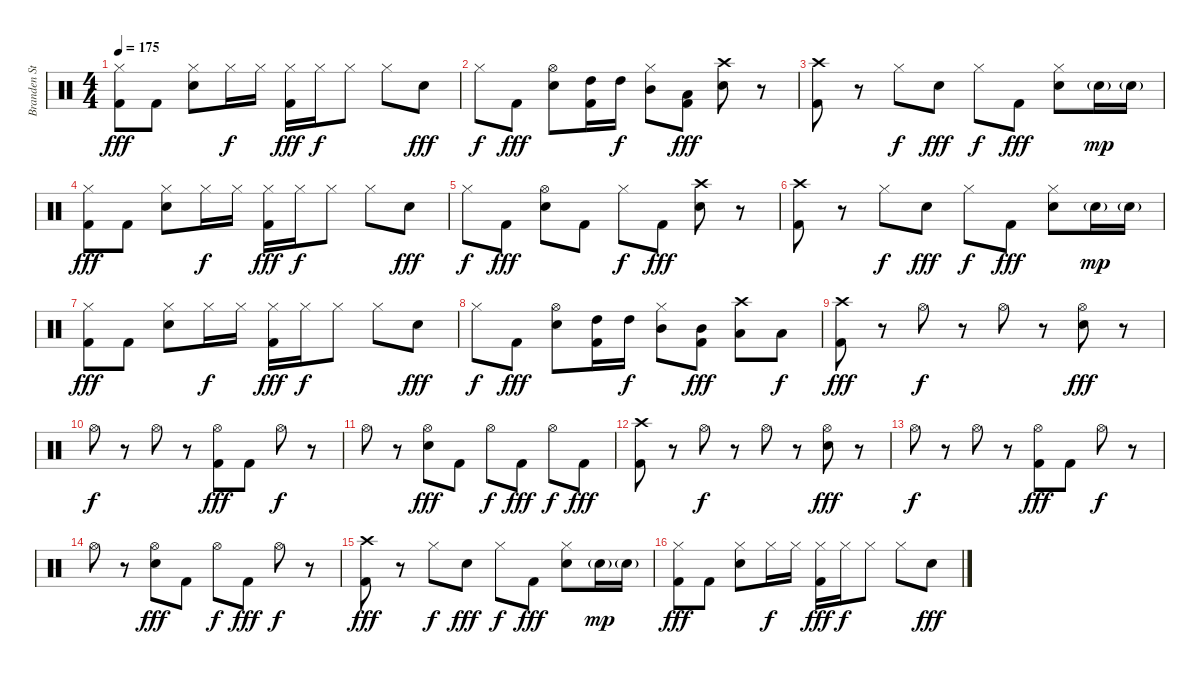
\track ("Branden Steineckert (Drums)" "Branden St") {instrument percussion}
\staff {score}
\articulation defaults
\ts (4 4)
\tempo 175
\clef neutral
\ks c
("Kick (hit) 2" "Hi-Hat (closed)").8{dy fff} "Kick (hit) 2".8 ("Electric Snare (hit)" "Hi-Hat (closed)").8 "Hi-Hat (closed)".16{dy f} "Hi-Hat (closed)".16 ("Kick (hit) 2" "Hi-Hat (closed)").16{dy fff} "Hi-Hat (closed)".16{dy f} "Hi-Hat (closed)".8 "Hi-Hat (closed)".8 "Electric Snare (hit)".8{dy fff} |
"Hi-Hat (closed)".8{dy f} "Kick (hit) 2".8{dy fff} ("Electric Snare (hit)" "Hi-Hat (open)").8 ("Kick (hit) 2" "High Tom (hit)").16 "High Tom (hit)".16{dy f} ("Mid Tom (hit)" "Hi-Hat (closed)").8 ("Kick (hit) 2" "Low Tom (hit)").8{dy fff} ("Electric Snare (hit)" "Crash high (hit)").8 r.8 |
("Kick (hit) 2" "Crash high (hit)").8 r.8 "Hi-Hat (closed)".8{dy f} "Electric Snare (hit)".8{dy fff} "Hi-Hat (closed)".8{dy f} "Kick (hit) 2".8{dy fff} ("Electric Snare (hit)" "Hi-Hat (closed)").8 "Electric Snare (hit)"{g}.16{dy mp} "Electric Snare (hit)"{g}.16 |
("Kick (hit) 2" "Hi-Hat (closed)").8{dy fff} "Kick (hit) 2".8 ("Electric Snare (hit)" "Hi-Hat (closed)").8 "Hi-Hat (closed)".16{dy f} "Hi-Hat (closed)".16 ("Kick (hit) 2" "Hi-Hat (closed)").16{dy fff} "Hi-Hat (closed)".16{dy f} "Hi-Hat (closed)".8 "Hi-Hat (closed)".8 "Electric Snare (hit)".8{dy fff} |
"Hi-Hat (closed)".8{dy f} "Kick (hit) 2".8{dy fff} ("Electric Snare (hit)" "Hi-Hat (open)").8 "Kick (hit) 2".8 "Hi-Hat (closed)".8{dy f} "Kick (hit) 2".8{dy fff} ("Electric Snare (hit)" "Crash high (hit)").8 r.8 |
("Kick (hit) 2" "Crash high (hit)").8 r.8 "Hi-Hat (closed)".8{dy f} "Electric Snare (hit)".8{dy fff} "Hi-Hat (closed)".8{dy f} "Kick (hit) 2".8{dy fff} ("Electric Snare (hit)" "Hi-Hat (closed)").8 "Electric Snare (hit)"{g}.16{dy mp} "Electric Snare (hit)"{g}.16 |
("Kick (hit) 2" "Hi-Hat (closed)").8{dy fff} "Kick (hit) 2".8 ("Electric Snare (hit)" "Hi-Hat (closed)").8 "Hi-Hat (closed)".16{dy f} "Hi-Hat (closed)".16 ("Kick (hit) 2" "Hi-Hat (closed)").16{dy fff} "Hi-Hat (closed)".16{dy f} "Hi-Hat (closed)".8 "Hi-Hat (closed)".8 "Electric Snare (hit)".8{dy fff} |
"Hi-Hat (closed)".8{dy f} "Kick (hit) 2".8{dy fff} ("Electric Snare (hit)" "Hi-Hat (open)").8 ("Kick (hit) 2" "High Tom (hit)").16 "High Tom (hit)".16{dy f} ("Mid Tom (hit)" "Hi-Hat (closed)").8 ("Kick (hit) 2" "Mid Tom (hit)").8{dy fff} ("Low Tom (hit)" "Crash high (hit)").8 "Low Tom (hit)".8{dy f} |
("Kick (hit) 2" "Crash high (hit)").8{dy fff} r.8 "Hi-Hat (open)".8{dy f} r.8 "Hi-Hat (open)".8 r.8 ("Electric Snare (hit)" "Hi-Hat (open)").8{dy fff} r.8 |
"Hi-Hat (open)".8{dy f} r.8 "Hi-Hat (open)".8 r.8 ("Kick (hit) 2" "Hi-Hat (open)").8{dy fff} "Kick (hit) 2".8 "Hi-Hat (open)".8{dy f} r.8 |
"Hi-Hat (open)".8 r.8 ("Electric Snare (hit)" "Hi-Hat (open)").8{dy fff} "Kick (hit) 2".8 "Hi-Hat (open)".8{dy f} "Kick (hit) 2".8{dy fff} "Hi-Hat (open)".8{dy f} "Kick (hit) 2".8{dy fff} |
("Kick (hit) 2" "Crash high (hit)").8 r.8 "Hi-Hat (open)".8{dy f} r.8 "Hi-Hat (open)".8 r.8 ("Electric Snare (hit)" "Hi-Hat (open)").8{dy fff} r.8 |
"Hi-Hat (open)".8{dy f} r.8 "Hi-Hat (open)".8 r.8 ("Kick (hit) 2" "Hi-Hat (open)").8{dy fff} "Kick (hit) 2".8 "Hi-Hat (open)".8{dy f} r.8 |
"Hi-Hat (open)".8 r.8 ("Electric Snare (hit)" "Hi-Hat (open)").8{dy fff} "Kick (hit) 2".8 "Hi-Hat (open)".8{dy f} "Kick (hit) 2".8{dy fff} "Hi-Hat (open)".8{dy f} r.8 |
("Kick (hit) 2" "Crash high (hit)").8{dy fff} r.8 "Hi-Hat (closed)".8{dy f} "Electric Snare (hit)".8{dy fff} "Hi-Hat (closed)".8{dy f} "Kick (hit) 2".8{dy fff} ("Electric Snare (hit)" "Hi-Hat (closed)").8 "Electric Snare (hit)"{g}.16{dy mp} "Electric Snare (hit)"{g}.16 |
("Kick (hit) 2" "Hi-Hat (closed)").8{dy fff} "Kick (hit) 2".8 ("Electric Snare (hit)" "Hi-Hat (closed)").8 "Hi-Hat (closed)".16{dy f} "Hi-Hat (closed)".16 ("Kick (hit) 2" "Hi-Hat (closed)").16{dy fff} "Hi-Hat (closed)".16{dy f} "Hi-Hat (closed)".8 "Hi-Hat (closed)".8 "Electric Snare (hit)".8{dy fff}
